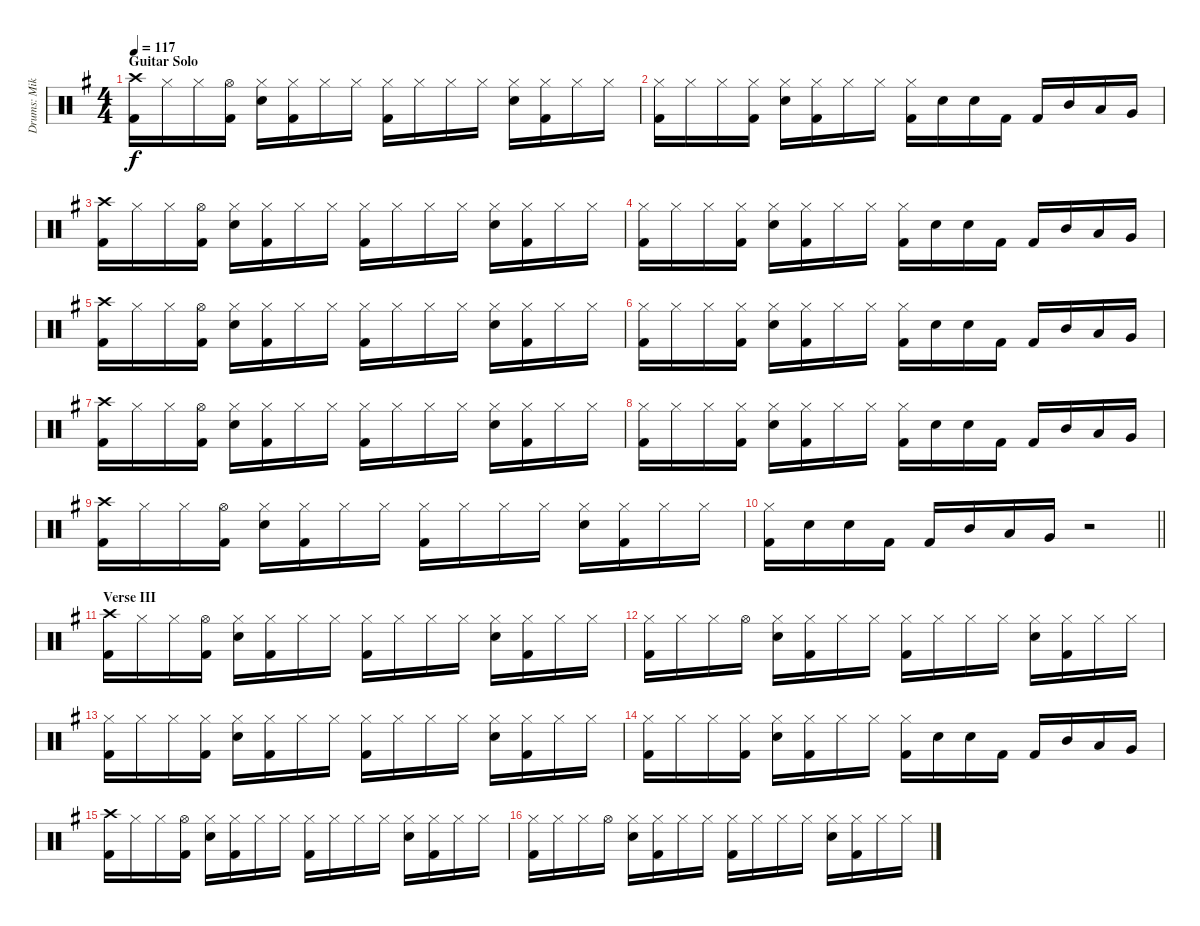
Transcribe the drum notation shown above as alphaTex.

\track ("Drums: Mike" "Drums: Mik") {instrument percussion}
\staff {score}
\articulation defaults
\ts (4 4)
\section ("" "Guitar Solo")
\tempo 117
\clef neutral
\ks g
("Crash high (hit)" "Kick (hit) 2").16{dy f} "Hi-Hat (closed)".16 "Hi-Hat (closed)".16 ("Hi-Hat (open)" "Kick (hit) 2").16 ("Hi-Hat (closed)" "Electric Snare (hit)").16 ("Hi-Hat (closed)" "Kick (hit) 2").16 "Hi-Hat (closed)".16 "Hi-Hat (closed)".16 ("Hi-Hat (closed)" "Kick (hit) 2").16 "Hi-Hat (closed)".16 "Hi-Hat (closed)".16 "Hi-Hat (closed)".16 ("Hi-Hat (closed)" "Electric Snare (hit)").16 ("Hi-Hat (closed)" "Kick (hit) 2").16 "Hi-Hat (closed)".16 "Hi-Hat (closed)".16 |
("Hi-Hat (closed)" "Kick (hit) 2").16 "Hi-Hat (closed)".16 "Hi-Hat (closed)".16 ("Hi-Hat (closed)" "Kick (hit) 2").16 ("Hi-Hat (closed)" "Electric Snare (hit)").16 ("Hi-Hat (closed)" "Kick (hit) 2").16 "Hi-Hat (closed)".16 "Hi-Hat (closed)".16 ("Hi-Hat (closed)" "Kick (hit) 2").16 "Electric Snare (hit)".16 "Electric Snare (hit)".16 "Kick (hit) 2".16 "Kick (hit) 2".16 "Mid Tom (hit)".16 "Low Tom (hit)".16 "Very Low Tom (hit)".16 |
("Crash high (hit)" "Kick (hit) 2").16 "Hi-Hat (closed)".16 "Hi-Hat (closed)".16 ("Hi-Hat (open)" "Kick (hit) 2").16 ("Hi-Hat (closed)" "Electric Snare (hit)").16 ("Hi-Hat (closed)" "Kick (hit) 2").16 "Hi-Hat (closed)".16 "Hi-Hat (closed)".16 ("Hi-Hat (closed)" "Kick (hit) 2").16 "Hi-Hat (closed)".16 "Hi-Hat (closed)".16 "Hi-Hat (closed)".16 ("Hi-Hat (closed)" "Electric Snare (hit)").16 ("Hi-Hat (closed)" "Kick (hit) 2").16 "Hi-Hat (closed)".16 "Hi-Hat (closed)".16 |
("Hi-Hat (closed)" "Kick (hit) 2").16 "Hi-Hat (closed)".16 "Hi-Hat (closed)".16 ("Hi-Hat (closed)" "Kick (hit) 2").16 ("Hi-Hat (closed)" "Electric Snare (hit)").16 ("Hi-Hat (closed)" "Kick (hit) 2").16 "Hi-Hat (closed)".16 "Hi-Hat (closed)".16 ("Hi-Hat (closed)" "Kick (hit) 2").16 "Electric Snare (hit)".16 "Electric Snare (hit)".16 "Kick (hit) 2".16 "Kick (hit) 2".16 "Mid Tom (hit)".16 "Low Tom (hit)".16 "Very Low Tom (hit)".16 |
("Crash high (hit)" "Kick (hit) 2").16 "Hi-Hat (closed)".16 "Hi-Hat (closed)".16 ("Hi-Hat (open)" "Kick (hit) 2").16 ("Hi-Hat (closed)" "Electric Snare (hit)").16 ("Hi-Hat (closed)" "Kick (hit) 2").16 "Hi-Hat (closed)".16 "Hi-Hat (closed)".16 ("Hi-Hat (closed)" "Kick (hit) 2").16 "Hi-Hat (closed)".16 "Hi-Hat (closed)".16 "Hi-Hat (closed)".16 ("Hi-Hat (closed)" "Electric Snare (hit)").16 ("Hi-Hat (closed)" "Kick (hit) 2").16 "Hi-Hat (closed)".16 "Hi-Hat (closed)".16 |
("Hi-Hat (closed)" "Kick (hit) 2").16 "Hi-Hat (closed)".16 "Hi-Hat (closed)".16 ("Hi-Hat (closed)" "Kick (hit) 2").16 ("Hi-Hat (closed)" "Electric Snare (hit)").16 ("Hi-Hat (closed)" "Kick (hit) 2").16 "Hi-Hat (closed)".16 "Hi-Hat (closed)".16 ("Hi-Hat (closed)" "Kick (hit) 2").16 "Electric Snare (hit)".16 "Electric Snare (hit)".16 "Kick (hit) 2".16 "Kick (hit) 2".16 "Mid Tom (hit)".16 "Low Tom (hit)".16 "Very Low Tom (hit)".16 |
("Crash high (hit)" "Kick (hit) 2").16 "Hi-Hat (closed)".16 "Hi-Hat (closed)".16 ("Hi-Hat (open)" "Kick (hit) 2").16 ("Hi-Hat (closed)" "Electric Snare (hit)").16 ("Hi-Hat (closed)" "Kick (hit) 2").16 "Hi-Hat (closed)".16 "Hi-Hat (closed)".16 ("Hi-Hat (closed)" "Kick (hit) 2").16 "Hi-Hat (closed)".16 "Hi-Hat (closed)".16 "Hi-Hat (closed)".16 ("Hi-Hat (closed)" "Electric Snare (hit)").16 ("Hi-Hat (closed)" "Kick (hit) 2").16 "Hi-Hat (closed)".16 "Hi-Hat (closed)".16 |
("Hi-Hat (closed)" "Kick (hit) 2").16 "Hi-Hat (closed)".16 "Hi-Hat (closed)".16 ("Hi-Hat (closed)" "Kick (hit) 2").16 ("Hi-Hat (closed)" "Electric Snare (hit)").16 ("Hi-Hat (closed)" "Kick (hit) 2").16 "Hi-Hat (closed)".16 "Hi-Hat (closed)".16 ("Hi-Hat (closed)" "Kick (hit) 2").16 "Electric Snare (hit)".16 "Electric Snare (hit)".16 "Kick (hit) 2".16 "Kick (hit) 2".16 "Mid Tom (hit)".16 "Low Tom (hit)".16 "Very Low Tom (hit)".16 |
("Crash high (hit)" "Kick (hit) 2").16 "Hi-Hat (closed)".16 "Hi-Hat (closed)".16 ("Hi-Hat (open)" "Kick (hit) 2").16 ("Hi-Hat (closed)" "Electric Snare (hit)").16 ("Hi-Hat (closed)" "Kick (hit) 2").16 "Hi-Hat (closed)".16 "Hi-Hat (closed)".16 ("Hi-Hat (closed)" "Kick (hit) 2").16 "Hi-Hat (closed)".16 "Hi-Hat (closed)".16 "Hi-Hat (closed)".16 ("Hi-Hat (closed)" "Electric Snare (hit)").16 ("Hi-Hat (closed)" "Kick (hit) 2").16 "Hi-Hat (closed)".16 "Hi-Hat (closed)".16 |
\barLineRight lightlight
("Hi-Hat (closed)" "Kick (hit) 2").16 "Electric Snare (hit)".16 "Electric Snare (hit)".16 "Kick (hit) 2".16 "Kick (hit) 2".16 "Mid Tom (hit)".16 "Low Tom (hit)".16 "Very Low Tom (hit)".16 r.2 |
\section ("" "Verse III")
("Crash high (hit)" "Kick (hit) 2").16 "Hi-Hat (closed)".16 "Hi-Hat (closed)".16 ("Hi-Hat (open)" "Kick (hit) 2").16 ("Hi-Hat (closed)" "Electric Snare (hit)").16 ("Hi-Hat (closed)" "Kick (hit) 2").16 "Hi-Hat (closed)".16 "Hi-Hat (closed)".16 ("Hi-Hat (closed)" "Kick (hit) 2").16 "Hi-Hat (closed)".16 "Hi-Hat (closed)".16 "Hi-Hat (closed)".16 ("Hi-Hat (closed)" "Electric Snare (hit)").16 ("Hi-Hat (closed)" "Kick (hit) 2").16 "Hi-Hat (closed)".16 "Hi-Hat (closed)".16 |
("Hi-Hat (closed)" "Kick (hit) 2").16 "Hi-Hat (closed)".16 "Hi-Hat (closed)".16 "Hi-Hat (open)".16 ("Hi-Hat (closed)" "Electric Snare (hit)").16 ("Hi-Hat (closed)" "Kick (hit) 2").16 "Hi-Hat (closed)".16 "Hi-Hat (closed)".16 ("Hi-Hat (closed)" "Kick (hit) 2").16 "Hi-Hat (closed)".16 "Hi-Hat (closed)".16 "Hi-Hat (closed)".16 ("Hi-Hat (closed)" "Electric Snare (hit)").16 ("Hi-Hat (closed)" "Kick (hit) 2").16 "Hi-Hat (closed)".16 "Hi-Hat (closed)".16 |
("Hi-Hat (closed)" "Kick (hit) 2").16 "Hi-Hat (closed)".16 "Hi-Hat (closed)".16 ("Hi-Hat (closed)" "Kick (hit) 2").16 ("Hi-Hat (closed)" "Electric Snare (hit)").16 ("Hi-Hat (closed)" "Kick (hit) 2").16 "Hi-Hat (closed)".16 "Hi-Hat (closed)".16 ("Hi-Hat (closed)" "Kick (hit) 2").16 "Hi-Hat (closed)".16 "Hi-Hat (closed)".16 "Hi-Hat (closed)".16 ("Hi-Hat (closed)" "Electric Snare (hit)").16 ("Hi-Hat (closed)" "Kick (hit) 2").16 "Hi-Hat (closed)".16 "Hi-Hat (closed)".16 |
("Hi-Hat (closed)" "Kick (hit) 2").16 "Hi-Hat (closed)".16 "Hi-Hat (closed)".16 ("Hi-Hat (closed)" "Kick (hit) 2").16 ("Hi-Hat (closed)" "Electric Snare (hit)").16 ("Hi-Hat (closed)" "Kick (hit) 2").16 "Hi-Hat (closed)".16 "Hi-Hat (closed)".16 ("Hi-Hat (closed)" "Kick (hit) 2").16 "Electric Snare (hit)".16 "Electric Snare (hit)".16 "Kick (hit) 2".16 "Kick (hit) 2".16 "Mid Tom (hit)".16 "Low Tom (hit)".16 "Very Low Tom (hit)".16 |
("Crash high (hit)" "Kick (hit) 2").16 "Hi-Hat (closed)".16 "Hi-Hat (closed)".16 ("Hi-Hat (open)" "Kick (hit) 2").16 ("Hi-Hat (closed)" "Electric Snare (hit)").16 ("Hi-Hat (closed)" "Kick (hit) 2").16 "Hi-Hat (closed)".16 "Hi-Hat (closed)".16 ("Hi-Hat (closed)" "Kick (hit) 2").16 "Hi-Hat (closed)".16 "Hi-Hat (closed)".16 "Hi-Hat (closed)".16 ("Hi-Hat (closed)" "Electric Snare (hit)").16 ("Hi-Hat (closed)" "Kick (hit) 2").16 "Hi-Hat (closed)".16 "Hi-Hat (closed)".16 |
("Hi-Hat (closed)" "Kick (hit) 2").16 "Hi-Hat (closed)".16 "Hi-Hat (closed)".16 "Hi-Hat (open)".16 ("Hi-Hat (closed)" "Electric Snare (hit)").16 ("Hi-Hat (closed)" "Kick (hit) 2").16 "Hi-Hat (closed)".16 "Hi-Hat (closed)".16 ("Hi-Hat (closed)" "Kick (hit) 2").16 "Hi-Hat (closed)".16 "Hi-Hat (closed)".16 "Hi-Hat (closed)".16 ("Hi-Hat (closed)" "Electric Snare (hit)").16 ("Hi-Hat (closed)" "Kick (hit) 2").16 "Hi-Hat (closed)".16 "Hi-Hat (closed)".16
